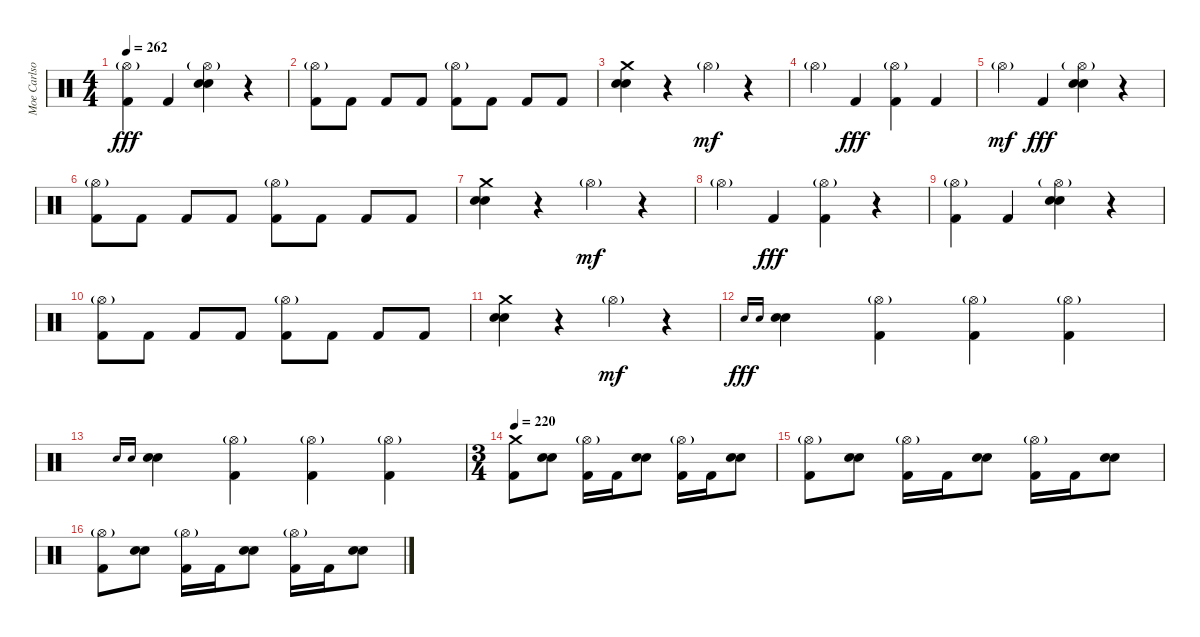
\track ("Moe Carlson" "Moe Carlso") {instrument percussion}
\staff {score}
\articulation defaults
\ts (4 4)
\tempo 262
\clef neutral
\ks c
("Hi-Hat (open)"{g} "Kick (hit) 2").4{dy fff} "Kick (hit) 2".4 ("Hi-Hat (open)"{g} "Snare (hit) 2" "Electric Snare (hit)").4 r.4 |
("Hi-Hat (open)"{g} "Kick (hit) 2").8 "Kick (hit) 2".8 "Kick (hit) 2".8 "Kick (hit) 2".8 ("Hi-Hat (open)"{g} "Kick (hit) 2").8 "Kick (hit) 2".8 "Kick (hit) 2".8 "Kick (hit) 2".8 |
("Crash medium (hit)" "Snare (hit) 2" "Electric Snare (hit)").4 r.4 "Hi-Hat (open)"{g}.4{dy mf} r.4 |
"Hi-Hat (open)"{g}.4 "Kick (hit) 2".4{dy fff} ("Hi-Hat (open)"{g} "Kick (hit) 2").4 "Kick (hit) 2".4 |
"Hi-Hat (open)"{g}.4{dy mf} "Kick (hit) 2".4{dy fff} ("Hi-Hat (open)"{g} "Snare (hit) 2" "Electric Snare (hit)").4 r.4 |
("Hi-Hat (open)"{g} "Kick (hit) 2").8 "Kick (hit) 2".8 "Kick (hit) 2".8 "Kick (hit) 2".8 ("Hi-Hat (open)"{g} "Kick (hit) 2").8 "Kick (hit) 2".8 "Kick (hit) 2".8 "Kick (hit) 2".8 |
("Crash medium (hit)" "Snare (hit) 2" "Electric Snare (hit)").4 r.4 "Hi-Hat (open)"{g}.4{dy mf} r.4 |
"Hi-Hat (open)"{g}.4 "Kick (hit) 2".4{dy fff} ("Hi-Hat (open)"{g} "Kick (hit) 2").4 r.4 |
("Hi-Hat (open)"{g} "Kick (hit) 2").4 "Kick (hit) 2".4 ("Hi-Hat (open)"{g} "Snare (hit) 2" "Electric Snare (hit)").4 r.4 |
("Hi-Hat (open)"{g} "Kick (hit) 2").8 "Kick (hit) 2".8 "Kick (hit) 2".8 "Kick (hit) 2".8 ("Hi-Hat (open)"{g} "Kick (hit) 2").8 "Kick (hit) 2".8 "Kick (hit) 2".8 "Kick (hit) 2".8 |
("Crash medium (hit)" "Snare (hit) 2" "Electric Snare (hit)").4 r.4 "Hi-Hat (open)"{g}.4{dy mf} r.4 |
"Snare (hit) 2".16{gr onbeat dy fff} "Electric Snare (hit)".16{gr onbeat} ("Snare (hit) 2" "Electric Snare (hit)").4 ("Hi-Hat (open)"{g} "Kick (hit) 2").4 ("Hi-Hat (open)"{g} "Kick (hit) 2").4 ("Hi-Hat (open)"{g} "Kick (hit) 2").4 |
"Snare (hit) 2".16{gr onbeat} "Electric Snare (hit)".16{gr onbeat} ("Snare (hit) 2" "Electric Snare (hit)").4 ("Hi-Hat (open)"{g} "Kick (hit) 2").4 ("Hi-Hat (open)"{g} "Kick (hit) 2").4 ("Hi-Hat (open)"{g} "Kick (hit) 2").4 |
\ts (3 4)
\tempo 220
("Crash medium (hit)" "Kick (hit) 2").8 ("Snare (hit) 2" "Electric Snare (hit)").8 ("Hi-Hat (open)"{g} "Kick (hit) 2").16 "Kick (hit) 2".16 ("Snare (hit) 2" "Electric Snare (hit)").8 ("Hi-Hat (open)"{g} "Kick (hit) 2").16 "Kick (hit) 2".16 ("Snare (hit) 2" "Electric Snare (hit)").8 |
("Hi-Hat (open)"{g} "Kick (hit) 2").8 ("Snare (hit) 2" "Electric Snare (hit)").8 ("Hi-Hat (open)"{g} "Kick (hit) 2").16 "Kick (hit) 2".16 ("Snare (hit) 2" "Electric Snare (hit)").8 ("Hi-Hat (open)"{g} "Kick (hit) 2").16 "Kick (hit) 2".16 ("Snare (hit) 2" "Electric Snare (hit)").8 |
("Hi-Hat (open)"{g} "Kick (hit) 2").8 ("Snare (hit) 2" "Electric Snare (hit)").8 ("Hi-Hat (open)"{g} "Kick (hit) 2").16 "Kick (hit) 2".16 ("Snare (hit) 2" "Electric Snare (hit)").8 ("Hi-Hat (open)"{g} "Kick (hit) 2").16 "Kick (hit) 2".16 ("Snare (hit) 2" "Electric Snare (hit)").8
